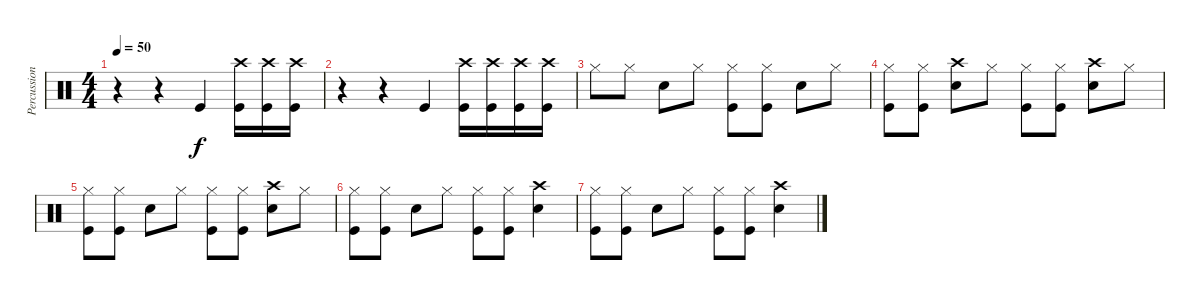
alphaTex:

\track ("Percussion" "Percussion") {instrument percussion}
\staff {score}
\articulation defaults
\ts (4 4)
\tempo 50
\clef neutral
\ks c
r.4{dy f} r.4 "Kick (hit)".4 ("Kick (hit)" "Crash high (hit)").16 ("Kick (hit)" "Crash high (hit)").16 ("Kick (hit)" "Crash high (hit)").16 |
r.4 r.4 "Kick (hit)".4 ("Kick (hit)" "Crash high (hit)").16 ("Kick (hit)" "Crash high (hit)").16 ("Kick (hit)" "Crash high (hit)").16 ("Kick (hit)" "Crash high (hit)").16 |
"Hi-Hat (closed)".8 "Hi-Hat (closed)".8 "Electric Snare (hit)".8 "Hi-Hat (closed)".8 ("Hi-Hat (closed)" "Kick (hit)").8 ("Hi-Hat (closed)" "Kick (hit)").8 "Electric Snare (hit)".8 "Hi-Hat (closed)".8 |
("Hi-Hat (closed)" "Kick (hit)").8 ("Hi-Hat (closed)" "Kick (hit)").8 ("Electric Snare (hit)" "Crash high (hit)").8 "Hi-Hat (closed)".8 ("Hi-Hat (closed)" "Kick (hit)").8 ("Hi-Hat (closed)" "Kick (hit)").8 ("Electric Snare (hit)" "Crash high (hit)").8 "Hi-Hat (closed)".8 |
("Hi-Hat (closed)" "Kick (hit)").8 ("Hi-Hat (closed)" "Kick (hit)").8 "Electric Snare (hit)".8 "Hi-Hat (closed)".8 ("Hi-Hat (closed)" "Kick (hit)").8 ("Hi-Hat (closed)" "Kick (hit)").8 ("Electric Snare (hit)" "Crash high (hit)").8 "Hi-Hat (closed)".8 |
("Hi-Hat (closed)" "Kick (hit)").8 ("Hi-Hat (closed)" "Kick (hit)").8 "Electric Snare (hit)".8 "Hi-Hat (closed)".8 ("Hi-Hat (closed)" "Kick (hit)").8 ("Hi-Hat (closed)" "Kick (hit)").8 ("Electric Snare (hit)" "Crash high (hit)").4 |
("Hi-Hat (closed)" "Kick (hit)").8 ("Hi-Hat (closed)" "Kick (hit)").8 "Electric Snare (hit)".8 "Hi-Hat (closed)".8 ("Hi-Hat (closed)" "Kick (hit)").8 ("Hi-Hat (closed)" "Kick (hit)").8 ("Electric Snare (hit)" "Crash high (hit)").4
